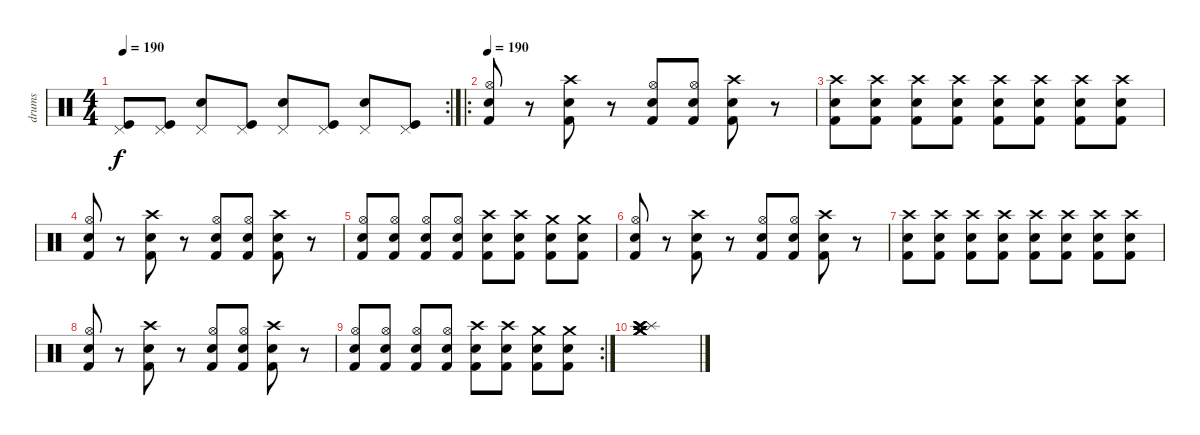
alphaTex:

\track ("drums" "drums") {instrument percussion}
\staff {score}
\articulation defaults
\rc 2
\ts (4 4)
\tempo 190
\clef neutral
\ks c
("Pedal Hi-Hat (hit)" "Kick (hit)").8{dy f} ("Pedal Hi-Hat (hit)" "Kick (hit)").8 ("Pedal Hi-Hat (hit)" "Snare (hit) 2").8 ("Pedal Hi-Hat (hit)" "Kick (hit)").8 ("Pedal Hi-Hat (hit)" "Snare (hit) 2").8 ("Pedal Hi-Hat (hit)" "Kick (hit)").8 ("Pedal Hi-Hat (hit)" "Snare (hit) 2").8 ("Pedal Hi-Hat (hit)" "Kick (hit)").8 |
\ro
\tempo 190
("Kick (hit) 2" "Hi-Hat (open)" "Electric Snare (hit)").8 r.8 ("Kick (hit) 2" "Crash high (hit)" "Electric Snare (hit)").8 r.8 ("Kick (hit) 2" "Hi-Hat (open)" "Electric Snare (hit)").8 ("Kick (hit) 2" "Hi-Hat (open)" "Electric Snare (hit)").8 ("Kick (hit) 2" "Crash high (hit)" "Electric Snare (hit)").8 r.8 |
("Kick (hit) 2" "Crash high (hit)" "Electric Snare (hit)").8 ("Kick (hit) 2" "Crash high (hit)" "Electric Snare (hit)").8 ("Kick (hit) 2" "Crash high (hit)" "Electric Snare (hit)").8 ("Kick (hit) 2" "Crash high (hit)" "Electric Snare (hit)").8 ("Kick (hit) 2" "Crash high (hit)" "Electric Snare (hit)").8 ("Kick (hit) 2" "Crash high (hit)" "Electric Snare (hit)").8 ("Kick (hit) 2" "Crash high (hit)" "Electric Snare (hit)").8 ("Kick (hit) 2" "Crash high (hit)" "Electric Snare (hit)").8 |
("Kick (hit) 2" "Hi-Hat (open)" "Electric Snare (hit)").8 r.8 ("Kick (hit) 2" "Crash high (hit)" "Electric Snare (hit)").8 r.8 ("Kick (hit) 2" "Hi-Hat (open)" "Electric Snare (hit)").8 ("Kick (hit) 2" "Hi-Hat (open)" "Electric Snare (hit)").8 ("Kick (hit) 2" "Crash high (hit)" "Electric Snare (hit)").8 r.8 |
("Kick (hit) 2" "Hi-Hat (open)" "Electric Snare (hit)").8 ("Kick (hit) 2" "Hi-Hat (open)" "Electric Snare (hit)").8 ("Kick (hit) 2" "Hi-Hat (open)" "Electric Snare (hit)").8 ("Kick (hit) 2" "Hi-Hat (open)" "Electric Snare (hit)").8 ("Kick (hit) 2" "Crash high (hit)" "Electric Snare (hit)").8 ("Kick (hit) 2" "Crash high (hit)" "Electric Snare (hit)").8 ("Kick (hit) 2" "Crash medium (hit)" "Electric Snare (hit)").8 ("Kick (hit) 2" "Crash medium (hit)" "Electric Snare (hit)").8 |
("Kick (hit) 2" "Hi-Hat (open)" "Electric Snare (hit)").8 r.8 ("Kick (hit) 2" "Crash high (hit)" "Electric Snare (hit)").8 r.8 ("Kick (hit) 2" "Hi-Hat (open)" "Electric Snare (hit)").8 ("Kick (hit) 2" "Hi-Hat (open)" "Electric Snare (hit)").8 ("Kick (hit) 2" "Crash high (hit)" "Electric Snare (hit)").8 r.8 |
("Kick (hit) 2" "Crash high (hit)" "Electric Snare (hit)").8 ("Kick (hit) 2" "Crash high (hit)" "Electric Snare (hit)").8 ("Kick (hit) 2" "Crash high (hit)" "Electric Snare (hit)").8 ("Kick (hit) 2" "Crash high (hit)" "Electric Snare (hit)").8 ("Kick (hit) 2" "Crash high (hit)" "Electric Snare (hit)").8 ("Kick (hit) 2" "Crash high (hit)" "Electric Snare (hit)").8 ("Kick (hit) 2" "Crash high (hit)" "Electric Snare (hit)").8 ("Kick (hit) 2" "Crash high (hit)" "Electric Snare (hit)").8 |
("Kick (hit) 2" "Hi-Hat (open)" "Electric Snare (hit)").8 r.8 ("Kick (hit) 2" "Crash high (hit)" "Electric Snare (hit)").8 r.8 ("Kick (hit) 2" "Hi-Hat (open)" "Electric Snare (hit)").8 ("Kick (hit) 2" "Hi-Hat (open)" "Electric Snare (hit)").8 ("Kick (hit) 2" "Crash high (hit)" "Electric Snare (hit)").8 r.8 |
\rc 2
("Kick (hit) 2" "Hi-Hat (open)" "Electric Snare (hit)").8 ("Kick (hit) 2" "Hi-Hat (open)" "Electric Snare (hit)").8 ("Kick (hit) 2" "Hi-Hat (open)" "Electric Snare (hit)").8 ("Kick (hit) 2" "Hi-Hat (open)" "Electric Snare (hit)").8 ("Kick (hit) 2" "Crash high (hit)" "Electric Snare (hit)").8 ("Kick (hit) 2" "Crash high (hit)" "Electric Snare (hit)").8 ("Kick (hit) 2" "Crash medium (hit)" "Electric Snare (hit)").8 ("Kick (hit) 2" "Crash medium (hit)" "Electric Snare (hit)").8 |
("Splash (hit)" "Crash high (hit)" "Crash high (hit)" "Crash medium (hit)" "Crash medium (hit)" "Crash medium (hit)").1
